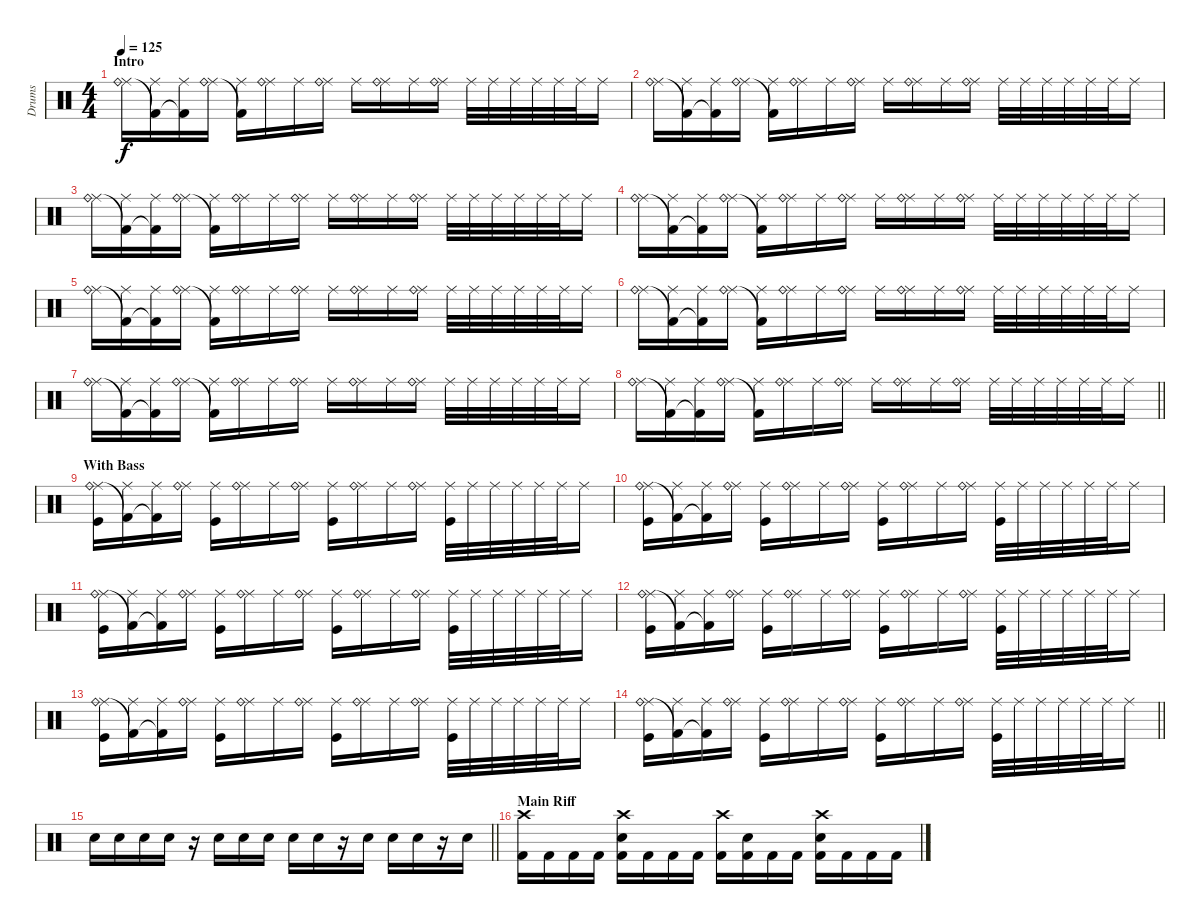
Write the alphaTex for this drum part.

\track ("Drums" "Drums") {instrument percussion}
\staff {score}
\articulation defaults
\ts (4 4)
\section ("" "Intro")
\tempo 125
\clef neutral
\ks c
("Ride (middle)" "Ride (bell)").16{dy f} ("Ride (middle)" "Kick (hit) 2"{t}).16 ("Ride (middle)" "Kick (hit) 2"{t}).16 ("Ride (middle)" "Ride (bell)").16 ("Ride (middle)" "Kick (hit) 2"{t}).16 ("Ride (middle)" "Ride (bell)").16 "Ride (middle)".16 ("Ride (middle)" "Ride (bell)").16 "Ride (middle)".16 ("Ride (middle)" "Ride (bell)").16 "Ride (middle)".16 ("Ride (middle)" "Ride (bell)").16 "Ride (middle)".32 "Ride (middle)".32 "Ride (middle)".32 "Ride (middle)".32 "Ride (middle)".32 "Ride (middle)".32 "Ride (middle)".16 |
("Ride (middle)" "Ride (bell)").16 ("Ride (middle)" "Kick (hit) 2"{t}).16 ("Ride (middle)" "Kick (hit) 2"{t}).16 ("Ride (middle)" "Ride (bell)").16 ("Ride (middle)" "Kick (hit) 2"{t}).16 ("Ride (middle)" "Ride (bell)").16 "Ride (middle)".16 ("Ride (middle)" "Ride (bell)").16 "Ride (middle)".16 ("Ride (middle)" "Ride (bell)").16 "Ride (middle)".16 ("Ride (middle)" "Ride (bell)").16 "Ride (middle)".32 "Ride (middle)".32 "Ride (middle)".32 "Ride (middle)".32 "Ride (middle)".32 "Ride (middle)".32 "Ride (middle)".16 |
("Ride (middle)" "Ride (bell)").16 ("Ride (middle)" "Kick (hit) 2"{t}).16 ("Ride (middle)" "Kick (hit) 2"{t}).16 ("Ride (middle)" "Ride (bell)").16 ("Ride (middle)" "Kick (hit) 2"{t}).16 ("Ride (middle)" "Ride (bell)").16 "Ride (middle)".16 ("Ride (middle)" "Ride (bell)").16 "Ride (middle)".16 ("Ride (middle)" "Ride (bell)").16 "Ride (middle)".16 ("Ride (middle)" "Ride (bell)").16 "Ride (middle)".32 "Ride (middle)".32 "Ride (middle)".32 "Ride (middle)".32 "Ride (middle)".32 "Ride (middle)".32 "Ride (middle)".16 |
("Ride (middle)" "Ride (bell)").16 ("Ride (middle)" "Kick (hit) 2"{t}).16 ("Ride (middle)" "Kick (hit) 2"{t}).16 ("Ride (middle)" "Ride (bell)").16 ("Ride (middle)" "Kick (hit) 2"{t}).16 ("Ride (middle)" "Ride (bell)").16 "Ride (middle)".16 ("Ride (middle)" "Ride (bell)").16 "Ride (middle)".16 ("Ride (middle)" "Ride (bell)").16 "Ride (middle)".16 ("Ride (middle)" "Ride (bell)").16 "Ride (middle)".32 "Ride (middle)".32 "Ride (middle)".32 "Ride (middle)".32 "Ride (middle)".32 "Ride (middle)".32 "Ride (middle)".16 |
("Ride (middle)" "Ride (bell)").16 ("Ride (middle)" "Kick (hit) 2"{t}).16 ("Ride (middle)" "Kick (hit) 2"{t}).16 ("Ride (middle)" "Ride (bell)").16 ("Ride (middle)" "Kick (hit) 2"{t}).16 ("Ride (middle)" "Ride (bell)").16 "Ride (middle)".16 ("Ride (middle)" "Ride (bell)").16 "Ride (middle)".16 ("Ride (middle)" "Ride (bell)").16 "Ride (middle)".16 ("Ride (middle)" "Ride (bell)").16 "Ride (middle)".32 "Ride (middle)".32 "Ride (middle)".32 "Ride (middle)".32 "Ride (middle)".32 "Ride (middle)".32 "Ride (middle)".16 |
("Ride (middle)" "Ride (bell)").16 ("Ride (middle)" "Kick (hit) 2"{t}).16 ("Ride (middle)" "Kick (hit) 2"{t}).16 ("Ride (middle)" "Ride (bell)").16 ("Ride (middle)" "Kick (hit) 2"{t}).16 ("Ride (middle)" "Ride (bell)").16 "Ride (middle)".16 ("Ride (middle)" "Ride (bell)").16 "Ride (middle)".16 ("Ride (middle)" "Ride (bell)").16 "Ride (middle)".16 ("Ride (middle)" "Ride (bell)").16 "Ride (middle)".32 "Ride (middle)".32 "Ride (middle)".32 "Ride (middle)".32 "Ride (middle)".32 "Ride (middle)".32 "Ride (middle)".16 |
("Ride (middle)" "Ride (bell)").16 ("Ride (middle)" "Kick (hit) 2"{t}).16 ("Ride (middle)" "Kick (hit) 2"{t}).16 ("Ride (middle)" "Ride (bell)").16 ("Ride (middle)" "Kick (hit) 2"{t}).16 ("Ride (middle)" "Ride (bell)").16 "Ride (middle)".16 ("Ride (middle)" "Ride (bell)").16 "Ride (middle)".16 ("Ride (middle)" "Ride (bell)").16 "Ride (middle)".16 ("Ride (middle)" "Ride (bell)").16 "Ride (middle)".32 "Ride (middle)".32 "Ride (middle)".32 "Ride (middle)".32 "Ride (middle)".32 "Ride (middle)".32 "Ride (middle)".16 |
\barLineRight lightlight
("Ride (middle)" "Ride (bell)").16 ("Ride (middle)" "Kick (hit) 2"{t}).16 ("Ride (middle)" "Kick (hit) 2"{t}).16 ("Ride (middle)" "Ride (bell)").16 ("Ride (middle)" "Kick (hit) 2"{t}).16 ("Ride (middle)" "Ride (bell)").16 "Ride (middle)".16 ("Ride (middle)" "Ride (bell)").16 "Ride (middle)".16 ("Ride (middle)" "Ride (bell)").16 "Ride (middle)".16 ("Ride (middle)" "Ride (bell)").16 "Ride (middle)".32 "Ride (middle)".32 "Ride (middle)".32 "Ride (middle)".32 "Ride (middle)".32 "Ride (middle)".32 "Ride (middle)".16 |
\section ("" "With Bass")
("Ride (middle)" "Ride (bell)" "Kick (hit)").16 ("Ride (middle)" "Kick (hit) 2"{t}).16 ("Ride (middle)" "Kick (hit) 2"{t}).16 ("Ride (middle)" "Ride (bell)").16 ("Ride (middle)" "Kick (hit)").16 ("Ride (middle)" "Ride (bell)").16 "Ride (middle)".16 ("Ride (middle)" "Ride (bell)").16 ("Ride (middle)" "Kick (hit)").16 ("Ride (middle)" "Ride (bell)").16 "Ride (middle)".16 ("Ride (middle)" "Ride (bell)").16 ("Ride (middle)" "Kick (hit)").32 "Ride (middle)".32 "Ride (middle)".32 "Ride (middle)".32 "Ride (middle)".32 "Ride (middle)".32 "Ride (middle)".16 |
("Ride (middle)" "Ride (bell)" "Kick (hit)").16 ("Ride (middle)" "Kick (hit) 2"{t}).16 ("Ride (middle)" "Kick (hit) 2"{t}).16 ("Ride (middle)" "Ride (bell)").16 ("Ride (middle)" "Kick (hit)").16 ("Ride (middle)" "Ride (bell)").16 "Ride (middle)".16 ("Ride (middle)" "Ride (bell)").16 ("Ride (middle)" "Kick (hit)").16 ("Ride (middle)" "Ride (bell)").16 "Ride (middle)".16 ("Ride (middle)" "Ride (bell)").16 ("Ride (middle)" "Kick (hit)").32 "Ride (middle)".32 "Ride (middle)".32 "Ride (middle)".32 "Ride (middle)".32 "Ride (middle)".32 "Ride (middle)".16 |
("Ride (middle)" "Ride (bell)" "Kick (hit)").16 ("Ride (middle)" "Kick (hit) 2"{t}).16 ("Ride (middle)" "Kick (hit) 2"{t}).16 ("Ride (middle)" "Ride (bell)").16 ("Ride (middle)" "Kick (hit)").16 ("Ride (middle)" "Ride (bell)").16 "Ride (middle)".16 ("Ride (middle)" "Ride (bell)").16 ("Ride (middle)" "Kick (hit)").16 ("Ride (middle)" "Ride (bell)").16 "Ride (middle)".16 ("Ride (middle)" "Ride (bell)").16 ("Ride (middle)" "Kick (hit)").32 "Ride (middle)".32 "Ride (middle)".32 "Ride (middle)".32 "Ride (middle)".32 "Ride (middle)".32 "Ride (middle)".16 |
("Ride (middle)" "Ride (bell)" "Kick (hit)").16 ("Ride (middle)" "Kick (hit) 2"{t}).16 ("Ride (middle)" "Kick (hit) 2"{t}).16 ("Ride (middle)" "Ride (bell)").16 ("Ride (middle)" "Kick (hit)").16 ("Ride (middle)" "Ride (bell)").16 "Ride (middle)".16 ("Ride (middle)" "Ride (bell)").16 ("Ride (middle)" "Kick (hit)").16 ("Ride (middle)" "Ride (bell)").16 "Ride (middle)".16 ("Ride (middle)" "Ride (bell)").16 ("Ride (middle)" "Kick (hit)").32 "Ride (middle)".32 "Ride (middle)".32 "Ride (middle)".32 "Ride (middle)".32 "Ride (middle)".32 "Ride (middle)".16 |
("Ride (middle)" "Ride (bell)" "Kick (hit)").16 ("Ride (middle)" "Kick (hit) 2"{t}).16 ("Ride (middle)" "Kick (hit) 2"{t}).16 ("Ride (middle)" "Ride (bell)").16 ("Ride (middle)" "Kick (hit)").16 ("Ride (middle)" "Ride (bell)").16 "Ride (middle)".16 ("Ride (middle)" "Ride (bell)").16 ("Ride (middle)" "Kick (hit)").16 ("Ride (middle)" "Ride (bell)").16 "Ride (middle)".16 ("Ride (middle)" "Ride (bell)").16 ("Ride (middle)" "Kick (hit)").32 "Ride (middle)".32 "Ride (middle)".32 "Ride (middle)".32 "Ride (middle)".32 "Ride (middle)".32 "Ride (middle)".16 |
\barLineRight lightlight
("Ride (middle)" "Ride (bell)" "Kick (hit)").16 ("Ride (middle)" "Kick (hit) 2"{t}).16 ("Ride (middle)" "Kick (hit) 2"{t}).16 ("Ride (middle)" "Ride (bell)").16 ("Ride (middle)" "Kick (hit)").16 ("Ride (middle)" "Ride (bell)").16 "Ride (middle)".16 ("Ride (middle)" "Ride (bell)").16 ("Ride (middle)" "Kick (hit)").16 ("Ride (middle)" "Ride (bell)").16 "Ride (middle)".16 ("Ride (middle)" "Ride (bell)").16 ("Ride (middle)" "Kick (hit)").32 "Ride (middle)".32 "Ride (middle)".32 "Ride (middle)".32 "Ride (middle)".32 "Ride (middle)".32 "Ride (middle)".16 |
\section ("" "")
\barLineRight lightlight "Snare (hit) 2".16 "Snare (hit) 2".16 "Snare (hit) 2".16 "Snare (hit) 2".16
r.16 "Snare (hit) 2".16 "Snare (hit) 2".16 "Snare (hit) 2".16 "Snare (hit) 2".16 "Snare (hit) 2".16 r.16 "Snare (hit) 2".16 "Snare (hit) 2".16 "Snare (hit) 2".16 r.16 "Snare (hit) 2".16 |
\section ("" "Main Riff")
("Crash high (hit)" "Kick (hit) 2").16 "Kick (hit) 2".16 "Kick (hit) 2".16 "Kick (hit) 2".16 ("Crash high (hit)" "Snare (hit) 2" "Kick (hit) 2").16 "Kick (hit) 2".16 "Kick (hit) 2".16 "Kick (hit) 2".16 ("Crash high (hit)" "Kick (hit) 2").16 ("Snare (hit) 2" "Kick (hit) 2").16 "Kick (hit) 2".16 "Kick (hit) 2".16 ("Crash high (hit)" "Snare (hit) 2" "Kick (hit) 2").16 "Kick (hit) 2".16 "Kick (hit) 2".16 "Kick (hit) 2".16
